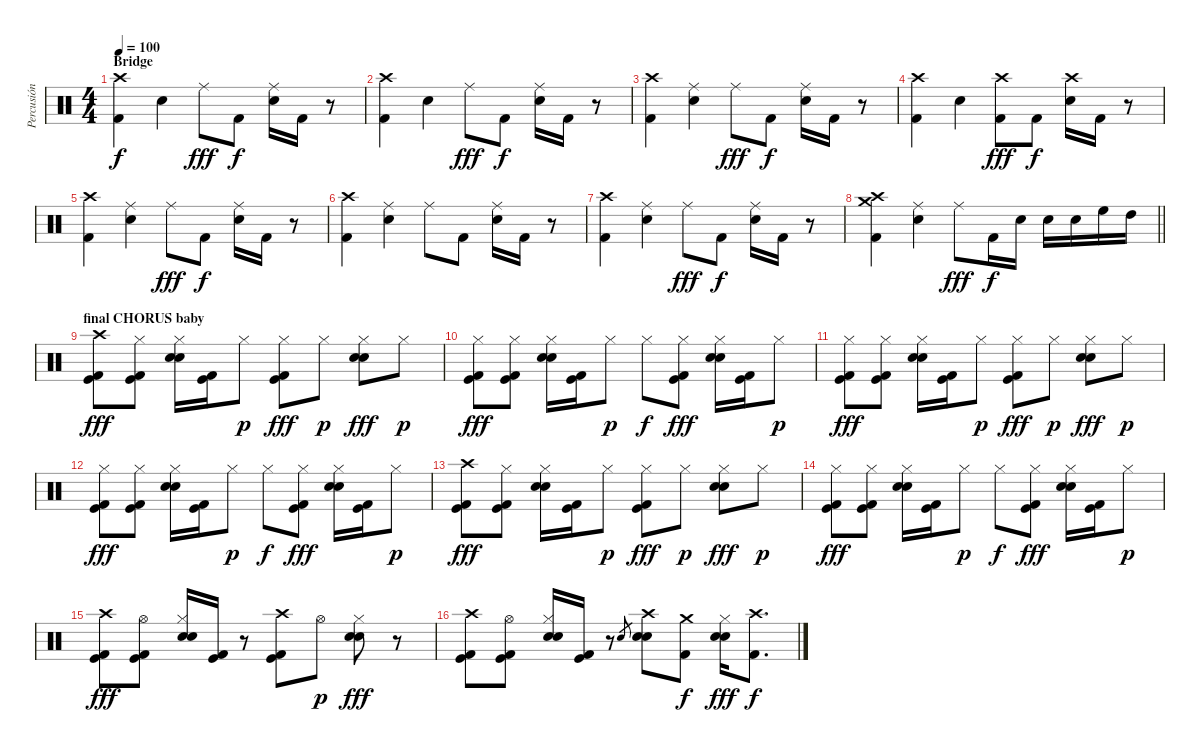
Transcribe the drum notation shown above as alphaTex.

\track ("Percusión" "Percusión") {instrument percussion}
\staff {score}
\articulation defaults
\ts (4 4)
\section ("" "Bridge")
\tempo 100
\clef neutral
\ks c
("Crash high (hit)" "Kick (hit) 2").4{dy f} "Electric Snare (hit)".4 "Ride (middle)".8{dy fff} "Kick (hit) 2".8{dy f} ("Ride (middle)" "Electric Snare (hit)").16 "Kick (hit) 2".16 r.8 |
("Crash high (hit)" "Kick (hit) 2").4 "Electric Snare (hit)".4 "Ride (middle)".8{dy fff} "Kick (hit) 2".8{dy f} ("Ride (middle)" "Electric Snare (hit)").16 "Kick (hit) 2".16 r.8 |
("Crash high (hit)" "Kick (hit) 2").4 ("Ride (middle)" "Electric Snare (hit)").4 "Ride (middle)".8{dy fff} "Kick (hit) 2".8{dy f} ("Ride (middle)" "Electric Snare (hit)").16 "Kick (hit) 2".16 r.8 |
("Crash high (hit)" "Kick (hit) 2").4 "Electric Snare (hit)".4 ("Crash high (hit)" "Kick (hit) 2").8{dy fff} "Kick (hit) 2".8{dy f} ("Crash high (hit)" "Electric Snare (hit)").16 "Kick (hit) 2".16 r.8 |
("Crash high (hit)" "Kick (hit) 2").4 ("Ride (middle)" "Electric Snare (hit)").4 "Ride (middle)".8{dy fff} "Kick (hit) 2".8{dy f} ("Ride (middle)" "Electric Snare (hit)").16 "Kick (hit) 2".16 r.8 |
("Crash high (hit)" "Kick (hit) 2").4 ("Ride (middle)" "Electric Snare (hit)").4 "Ride (middle)".8 "Kick (hit) 2".8 ("Ride (middle)" "Electric Snare (hit)").16 "Kick (hit) 2".16 r.8 |
("Crash high (hit)" "Kick (hit) 2").4 ("Ride (middle)" "Electric Snare (hit)").4 "Ride (middle)".8{dy fff} "Kick (hit) 2".8{dy f} ("Ride (middle)" "Electric Snare (hit)").16 "Kick (hit) 2".16 r.8 |
\barLineRight lightlight
("Crash high (hit)" "Crash medium (hit)" "Kick (hit) 2").4 ("Ride (middle)" "Electric Snare (hit)").4 "Ride (middle)".8{dy fff} "Kick (hit) 2".16{dy f} "Electric Snare (hit)".16 "Electric Snare (hit)".16 "Electric Snare (hit)".16 "High Floor Tom (hit)".16 "High Tom (hit)".16 |
\section ("" "final CHORUS baby")
("Crash high (hit)" "Kick (hit)" "Kick (hit) 2").8{dy fff} ("Hi-Hat (closed)" "Kick (hit)" "Kick (hit) 2").8 ("Hi-Hat (closed)" "Snare (hit) 2" "Electric Snare (hit)").16 ("Kick (hit)" "Kick (hit) 2").16 "Hi-Hat (closed)".8{dy p} ("Hi-Hat (closed)" "Kick (hit)" "Kick (hit) 2").8{dy fff} "Hi-Hat (closed)".8{dy p} ("Hi-Hat (closed)" "Snare (hit) 2" "Electric Snare (hit)").8{dy fff} "Hi-Hat (closed)".8{dy p} |
("Hi-Hat (closed)" "Kick (hit)" "Kick (hit) 2").8{dy fff} ("Hi-Hat (closed)" "Kick (hit)" "Kick (hit) 2").8 ("Hi-Hat (closed)" "Snare (hit) 2" "Electric Snare (hit)").16 ("Kick (hit)" "Kick (hit) 2").16 "Hi-Hat (closed)".8{dy p} "Hi-Hat (closed)".8{dy f} ("Hi-Hat (closed)" "Kick (hit)" "Kick (hit) 2").8{dy fff} ("Hi-Hat (closed)" "Snare (hit) 2" "Electric Snare (hit)").16 ("Kick (hit)" "Kick (hit) 2").16 "Hi-Hat (closed)".8{dy p} |
("Hi-Hat (closed)" "Kick (hit)" "Kick (hit) 2").8{dy fff} ("Hi-Hat (closed)" "Kick (hit)" "Kick (hit) 2").8 ("Hi-Hat (closed)" "Snare (hit) 2" "Electric Snare (hit)").16 ("Kick (hit)" "Kick (hit) 2").16 "Hi-Hat (closed)".8{dy p} ("Hi-Hat (closed)" "Kick (hit)" "Kick (hit) 2").8{dy fff} "Hi-Hat (closed)".8{dy p} ("Hi-Hat (closed)" "Snare (hit) 2" "Electric Snare (hit)").8{dy fff} "Hi-Hat (closed)".8{dy p} |
("Hi-Hat (closed)" "Kick (hit)" "Kick (hit) 2").8{dy fff} ("Hi-Hat (closed)" "Kick (hit)" "Kick (hit) 2").8 ("Hi-Hat (closed)" "Snare (hit) 2" "Electric Snare (hit)").16 ("Kick (hit)" "Kick (hit) 2").16 "Hi-Hat (closed)".8{dy p} "Hi-Hat (closed)".8{dy f} ("Hi-Hat (closed)" "Kick (hit)" "Kick (hit) 2").8{dy fff} ("Hi-Hat (closed)" "Snare (hit) 2" "Electric Snare (hit)").16 ("Kick (hit)" "Kick (hit) 2").16 "Hi-Hat (closed)".8{dy p} |
("Crash high (hit)" "Kick (hit)" "Kick (hit) 2").8{dy fff} ("Hi-Hat (closed)" "Kick (hit)" "Kick (hit) 2").8 ("Hi-Hat (closed)" "Snare (hit) 2" "Electric Snare (hit)").16 ("Kick (hit)" "Kick (hit) 2").16 "Hi-Hat (closed)".8{dy p} ("Hi-Hat (closed)" "Kick (hit)" "Kick (hit) 2").8{dy fff} "Hi-Hat (closed)".8{dy p} ("Hi-Hat (closed)" "Snare (hit) 2" "Electric Snare (hit)").8{dy fff} "Hi-Hat (closed)".8{dy p} |
("Hi-Hat (closed)" "Kick (hit)" "Kick (hit) 2").8{dy fff} ("Hi-Hat (closed)" "Kick (hit)" "Kick (hit) 2").8 ("Hi-Hat (closed)" "Snare (hit) 2" "Electric Snare (hit)").16 ("Kick (hit)" "Kick (hit) 2").16 "Hi-Hat (closed)".8{dy p} "Hi-Hat (closed)".8{dy f} ("Hi-Hat (closed)" "Kick (hit)" "Kick (hit) 2").8{dy fff} ("Hi-Hat (closed)" "Snare (hit) 2" "Electric Snare (hit)").16 ("Kick (hit)" "Kick (hit) 2").16 "Hi-Hat (closed)".8{dy p} |
("Crash high (hit)" "Kick (hit)" "Kick (hit) 2").8{dy fff} ("Hi-Hat (open)" "Kick (hit)" "Kick (hit) 2").8 ("Hi-Hat (closed)" "Snare (hit) 2" "Electric Snare (hit)").16 ("Kick (hit)" "Kick (hit) 2").16 r.8 ("Crash high (hit)" "Kick (hit)" "Kick (hit) 2").8 "Hi-Hat (open)".8{dy p} ("Hi-Hat (closed)" "Snare (hit) 2" "Electric Snare (hit)").8{dy fff} r.8 |
("Crash high (hit)" "Kick (hit)" "Kick (hit) 2").8 ("Hi-Hat (open)" "Kick (hit)" "Kick (hit) 2").8 ("Hi-Hat (closed)" "Snare (hit) 2" "Electric Snare (hit)").16 ("Kick (hit)" "Kick (hit) 2").16 r.8 "Snare (hit) 2".8{gr} ("Crash high (hit)" "Snare (hit) 2" "Electric Snare (hit)").8 ("Crash medium (hit)" "Kick (hit) 2").8{dy f} ("Hi-Hat (closed)" "Snare (hit) 2" "Electric Snare (hit)").16{dy fff} ("Crash high (hit)" "Kick (hit) 2").8{d dy f}
